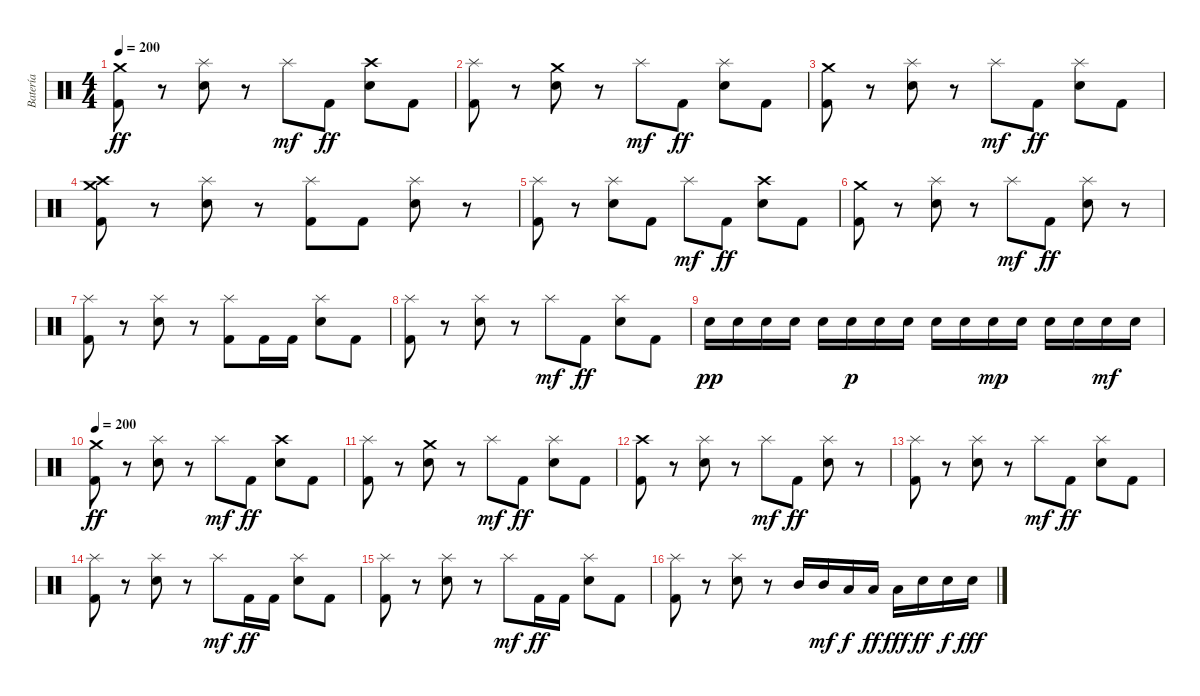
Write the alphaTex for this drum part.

\track ("Batería" "Batería") {instrument percussion}
\staff {score}
\articulation defaults
\ts (4 4)
\tempo 200
\clef neutral
\ks c
("Crash medium (hit)" "Kick (hit) 2").8{dy ff} r.8 ("Splash (hit)" "Electric Snare (hit)").8 r.8 "Splash (hit)".8{dy mf} "Kick (hit) 2".8{dy ff} ("Crash high (hit)" "Electric Snare (hit)").8 "Kick (hit) 2".8 |
("Splash (hit)" "Kick (hit) 2").8 r.8 ("Crash medium (hit)" "Electric Snare (hit)").8 r.8 "Splash (hit)".8{dy mf} "Kick (hit) 2".8{dy ff} ("Splash (hit)" "Electric Snare (hit)").8 "Kick (hit) 2".8 |
("Crash medium (hit)" "Kick (hit) 2").8 r.8 ("Splash (hit)" "Electric Snare (hit)").8 r.8 "Splash (hit)".8{dy mf} "Kick (hit) 2".8{dy ff} ("Splash (hit)" "Electric Snare (hit)").8 "Kick (hit) 2".8 |
("Crash high (hit)" "Crash medium (hit)" "Kick (hit) 2").8 r.8 ("Splash (hit)" "Electric Snare (hit)").8 r.8 ("Splash (hit)" "Kick (hit) 2").8 "Kick (hit) 2".8 ("Splash (hit)" "Electric Snare (hit)").8 r.8 |
("Splash (hit)" "Kick (hit) 2").8 r.8 ("Splash (hit)" "Electric Snare (hit)").8 "Kick (hit) 2".8 "Splash (hit)".8{dy mf} "Kick (hit) 2".8{dy ff} ("Crash high (hit)" "Electric Snare (hit)").8 "Kick (hit) 2".8 |
("Crash medium (hit)" "Kick (hit) 2").8 r.8 ("Splash (hit)" "Electric Snare (hit)").8 r.8 "Splash (hit)".8{dy mf} "Kick (hit) 2".8{dy ff} ("Splash (hit)" "Electric Snare (hit)").8 r.8 |
("Splash (hit)" "Kick (hit) 2").8 r.8 ("Splash (hit)" "Electric Snare (hit)").8 r.8 ("Splash (hit)" "Kick (hit) 2").8 "Kick (hit) 2".16 "Kick (hit) 2".16 ("Splash (hit)" "Electric Snare (hit)").8 "Kick (hit) 2".8 |
("Splash (hit)" "Kick (hit) 2").8 r.8 ("Splash (hit)" "Electric Snare (hit)").8 r.8 "Splash (hit)".8{dy mf} "Kick (hit) 2".8{dy ff} ("Splash (hit)" "Electric Snare (hit)").8 "Kick (hit) 2".8 |
"Electric Snare (hit)".16{dy pp} "Electric Snare (hit)".16 "Electric Snare (hit)".16 "Electric Snare (hit)".16 "Electric Snare (hit)".16 "Electric Snare (hit)".16{dy p} "Electric Snare (hit)".16 "Electric Snare (hit)".16 "Electric Snare (hit)".16 "Electric Snare (hit)".16 "Electric Snare (hit)".16{dy mp} "Electric Snare (hit)".16 "Electric Snare (hit)".16 "Electric Snare (hit)".16 "Electric Snare (hit)".16{dy mf} "Electric Snare (hit)".16 |
\tempo 200
("Crash medium (hit)" "Kick (hit) 2").8{dy ff} r.8 ("Splash (hit)" "Electric Snare (hit)").8 r.8 "Splash (hit)".8{dy mf} "Kick (hit) 2".8{dy ff} ("Crash high (hit)" "Electric Snare (hit)").8 "Kick (hit) 2".8 |
("Splash (hit)" "Kick (hit) 2").8 r.8 ("Crash medium (hit)" "Electric Snare (hit)").8 r.8 "Splash (hit)".8{dy mf} "Kick (hit) 2".8{dy ff} ("Splash (hit)" "Electric Snare (hit)").8 "Kick (hit) 2".8 |
("Crash high (hit)" "Kick (hit) 2").8 r.8 ("Splash (hit)" "Electric Snare (hit)").8 r.8 "Splash (hit)".8{dy mf} "Kick (hit) 2".8{dy ff} ("Splash (hit)" "Electric Snare (hit)").8 r.8 |
("Splash (hit)" "Kick (hit) 2").8 r.8 ("Splash (hit)" "Electric Snare (hit)").8 r.8 "Splash (hit)".8{dy mf} "Kick (hit) 2".8{dy ff} ("Splash (hit)" "Electric Snare (hit)").8 "Kick (hit) 2".8 |
("Splash (hit)" "Kick (hit) 2").8 r.8 ("Splash (hit)" "Electric Snare (hit)").8 r.8 "Splash (hit)".8{dy mf} "Kick (hit) 2".16{dy ff} "Kick (hit) 2".16 ("Splash (hit)" "Electric Snare (hit)").8 "Kick (hit) 2".8 |
("Splash (hit)" "Kick (hit) 2").8 r.8 ("Splash (hit)" "Electric Snare (hit)").8 r.8 "Splash (hit)".8{dy mf} "Kick (hit) 2".16{dy ff} "Kick (hit) 2".16 ("Splash (hit)" "Electric Snare (hit)").8 "Kick (hit) 2".8 |
("Splash (hit)" "Kick (hit) 2").8 r.8 ("Splash (hit)" "Electric Snare (hit)").8 r.8 "Mid Tom (hit)".16 "Mid Tom (hit)".16{dy mf} "Low Tom (hit)".16{dy f} "Low Tom (hit)".16{dy ff} "Low Tom (hit)".16{dy fff} "Electric Snare (hit)".16{dy ff} "Electric Snare (hit)".16{dy f} "Electric Snare (hit)".16{dy fff}
